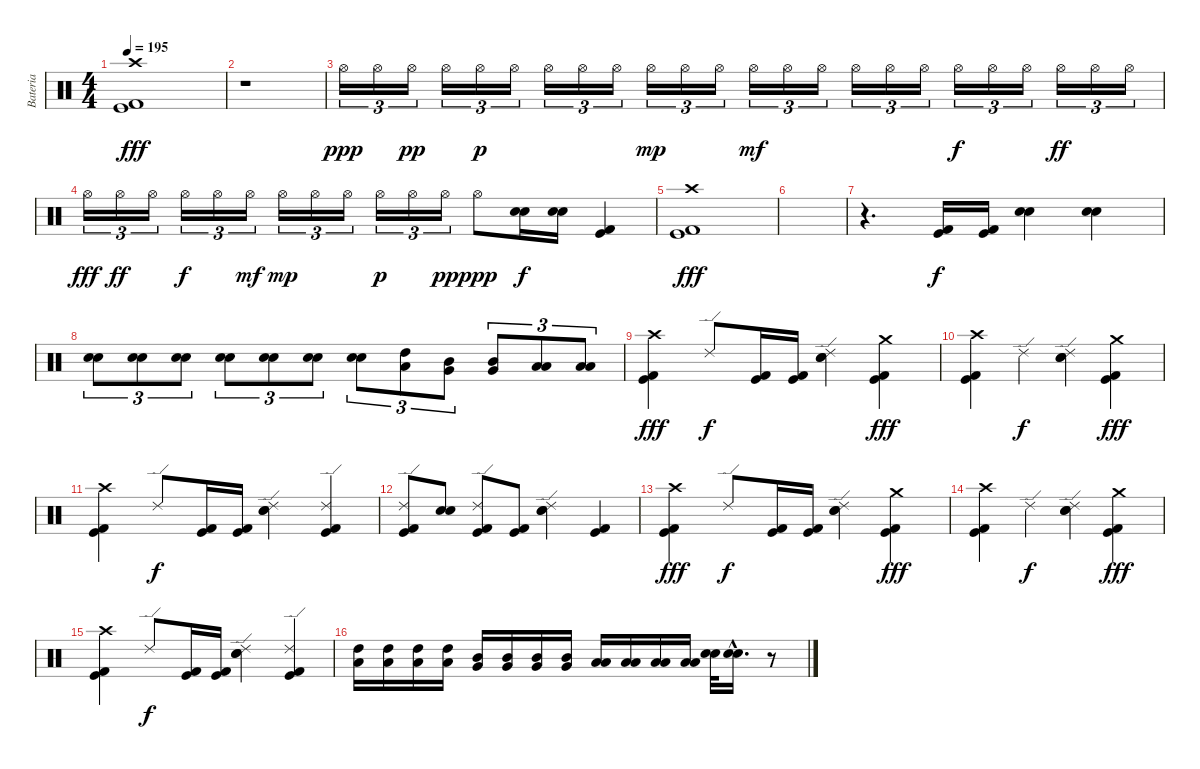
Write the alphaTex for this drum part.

\track ("Bateria" "Bateria") {instrument percussion}
\staff {score}
\articulation defaults
\ts (4 4)
\tempo 195
\clef neutral
\ks c
("Crash high (hit)" "Kick (hit) 2" "Kick (hit)").1{dy fff} |
r.1 |
"Hi-Hat (open)".16{tu (3 2) dy ppp} "Hi-Hat (open)".16{tu (3 2)} "Hi-Hat (open)".16{tu (3 2) dy pp} "Hi-Hat (open)".16{tu (3 2)} "Hi-Hat (open)".16{tu (3 2) dy p} "Hi-Hat (open)".16{tu (3 2)} "Hi-Hat (open)".16{tu (3 2)} "Hi-Hat (open)".16{tu (3 2)} "Hi-Hat (open)".16{tu (3 2)} "Hi-Hat (open)".16{tu (3 2) dy mp} "Hi-Hat (open)".16{tu (3 2)} "Hi-Hat (open)".16{tu (3 2)} "Hi-Hat (open)".16{tu (3 2) dy mf} "Hi-Hat (open)".16{tu (3 2)} "Hi-Hat (open)".16{tu (3 2)} "Hi-Hat (open)".16{tu (3 2)} "Hi-Hat (open)".16{tu (3 2)} "Hi-Hat (open)".16{tu (3 2)} "Hi-Hat (open)".16{tu (3 2) dy f} "Hi-Hat (open)".16{tu (3 2)} "Hi-Hat (open)".16{tu (3 2)} "Hi-Hat (open)".16{tu (3 2) dy ff} "Hi-Hat (open)".16{tu (3 2)} "Hi-Hat (open)".16{tu (3 2)} |
"Hi-Hat (open)".16{tu (3 2) dy fff} "Hi-Hat (open)".16{tu (3 2) dy ff} "Hi-Hat (open)".16{tu (3 2)} "Hi-Hat (open)".16{tu (3 2) dy f} "Hi-Hat (open)".16{tu (3 2)} "Hi-Hat (open)".16{tu (3 2) dy mf} "Hi-Hat (open)".16{tu (3 2) dy mp} "Hi-Hat (open)".16{tu (3 2)} "Hi-Hat (open)".16{tu (3 2)} "Hi-Hat (open)".16{tu (3 2) dy p} "Hi-Hat (open)".16{tu (3 2)} "Hi-Hat (open)".16{tu (3 2) dy pp} "Hi-Hat (open)".8{dy ppp} ("Electric Snare (hit)" "Snare (hit) 2").16{dy f} ("Electric Snare (hit)" "Snare (hit) 2").16 ("Kick (hit) 2" "Kick (hit)").4 |
("Crash high (hit)" "Kick (hit) 2" "Kick (hit)").1{dy fff} |
|
r.4{d} ("Kick (hit) 2" "Kick (hit)").16{dy f} ("Kick (hit) 2" "Kick (hit)").16 ("Electric Snare (hit)" "Snare (hit) 2").4 ("Electric Snare (hit)" "Snare (hit) 2").4 |
("Electric Snare (hit)" "Snare (hit) 2").8{tu (3 2)} ("Electric Snare (hit)" "Snare (hit) 2").8{tu (3 2)} ("Electric Snare (hit)" "Snare (hit) 2").8{tu (3 2)} ("Electric Snare (hit)" "Snare (hit) 2").8{tu (3 2)} ("Electric Snare (hit)" "Snare (hit) 2").8{tu (3 2)} ("Electric Snare (hit)" "Snare (hit) 2").8{tu (3 2)} ("Electric Snare (hit)" "Snare (hit) 2").8{tu (3 2)} ("High Tom (hit)" "Low Tom (hit)").8{tu (3 2)} ("Mid Tom (hit)" "Very Low Tom (hit)").8{tu (3 2)} ("Mid Tom (hit)" "Very Low Tom (hit)").8{tu (3 2)} ("Low Tom (hit)" "Low Floor Tom (hit)").8{tu (3 2)} ("Low Tom (hit)" "Low Floor Tom (hit)").8{tu (3 2)} |
("Crash high (hit)" "Kick (hit) 2" "Kick (hit)").4{dy fff} "Ride (edge) 2".8{dy f} ("Kick (hit) 2" "Kick (hit)").16 ("Kick (hit) 2" "Kick (hit)").16 ("Ride (edge) 2" "Electric Snare (hit)" "Snare (hit) 2").4 ("Crash medium (hit)" "Kick (hit) 2" "Kick (hit)").4{dy fff} |
("Crash high (hit)" "Kick (hit) 2" "Kick (hit)").4 "Ride (edge) 2".4{dy f} ("Ride (edge) 2" "Electric Snare (hit)" "Snare (hit) 2").4 ("Crash medium (hit)" "Kick (hit) 2" "Kick (hit)").4{dy fff} |
("Crash high (hit)" "Kick (hit) 2" "Kick (hit)").4 "Ride (edge) 2".8{dy f} ("Kick (hit) 2" "Kick (hit)").16 ("Kick (hit) 2" "Kick (hit)").16 ("Ride (edge) 2" "Electric Snare (hit)" "Snare (hit) 2").4 ("Ride (edge) 2" "Kick (hit) 2" "Kick (hit)").4 |
("Ride (edge) 2" "Kick (hit) 2" "Kick (hit)").8 ("Electric Snare (hit)" "Snare (hit) 2").8 ("Ride (edge) 2" "Kick (hit) 2" "Kick (hit)").8 ("Kick (hit) 2" "Kick (hit)").8 ("Ride (edge) 2" "Electric Snare (hit)" "Snare (hit) 2").4 ("Kick (hit) 2" "Kick (hit)").4 |
("Crash high (hit)" "Kick (hit) 2" "Kick (hit)").4{dy fff} "Ride (edge) 2".8{dy f} ("Kick (hit) 2" "Kick (hit)").16 ("Kick (hit) 2" "Kick (hit)").16 ("Ride (edge) 2" "Electric Snare (hit)" "Snare (hit) 2").4 ("Crash medium (hit)" "Kick (hit) 2" "Kick (hit)").4{dy fff} |
("Crash high (hit)" "Kick (hit) 2" "Kick (hit)").4 "Ride (edge) 2".4{dy f} ("Ride (edge) 2" "Electric Snare (hit)" "Snare (hit) 2").4 ("Crash medium (hit)" "Kick (hit) 2" "Kick (hit)").4{dy fff} |
("Crash high (hit)" "Kick (hit) 2" "Kick (hit)").4 "Ride (edge) 2".8{dy f} ("Kick (hit) 2" "Kick (hit)").16 ("Kick (hit) 2" "Kick (hit)").16 ("Ride (edge) 2" "Electric Snare (hit)" "Snare (hit) 2").4 ("Ride (edge) 2" "Kick (hit) 2" "Kick (hit)").4 |
("High Tom (hit)" "Low Tom (hit)").16 ("High Tom (hit)" "Low Tom (hit)").16 ("High Tom (hit)" "Low Tom (hit)").16 ("High Tom (hit)" "Low Tom (hit)").16 ("Mid Tom (hit)" "Very Low Tom (hit)").16 ("Mid Tom (hit)" "Very Low Tom (hit)").16 ("Mid Tom (hit)" "Very Low Tom (hit)").16 ("Mid Tom (hit)" "Very Low Tom (hit)").16 ("Low Tom (hit)" "Low Floor Tom (hit)").16 ("Low Tom (hit)" "Low Floor Tom (hit)").16 ("Low Tom (hit)" "Low Floor Tom (hit)").16 ("Low Tom (hit)" "Low Floor Tom (hit)").16 ("Electric Snare (hit)" "Snare (hit) 2").32 ("Electric Snare (hit)"{hac} "Snare (hit) 2"{hac}).16{d} r.8
